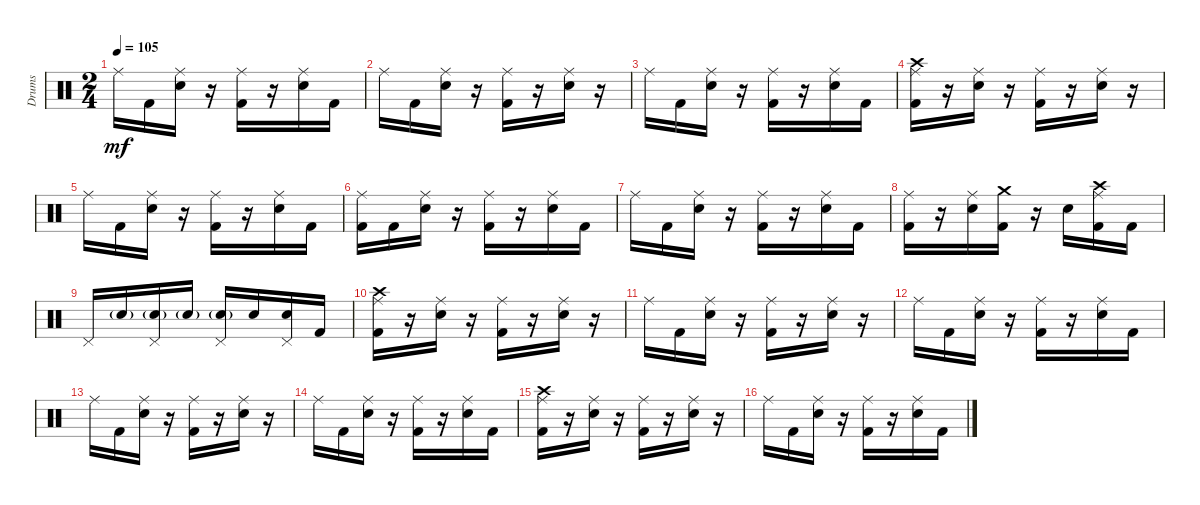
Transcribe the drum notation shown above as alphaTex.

\defaultSystemsLayout 4
\bracketExtendMode groupsimilarinstruments
\otherSystemsTrackNameOrientation horizontal
\track ("Godd" "Drums") {instrument percussion}
\staff {score}
\articulation defaults
\ts (2 4)
\tempo 105
\clef neutral
\ks c "Ride (middle)".16{dy mf} "Kick (hit) 2".16
("Ride (middle)" "Snare (hit) 2").16 r.16 ("Ride (middle)" "Kick (hit) 2").16 r.16 ("Ride (middle)" "Snare (hit) 2").16 "Kick (hit) 2".16 |
"Ride (middle)".16 "Kick (hit) 2".16 ("Ride (middle)" "Snare (hit) 2").16 r.16 ("Ride (middle)" "Kick (hit) 2").16 r.16 ("Ride (middle)" "Snare (hit) 2").16 r.16 |
"Ride (middle)".16 "Kick (hit) 2".16 ("Ride (middle)" "Snare (hit) 2").16 r.16 ("Ride (middle)" "Kick (hit) 2").16 r.16 ("Ride (middle)" "Snare (hit) 2").16 "Kick (hit) 2".16 |
("Ride (middle)" "Crash high (hit)" "Kick (hit) 2").16 r.16 ("Ride (middle)" "Snare (hit) 2").16 r.16 ("Ride (middle)" "Kick (hit) 2").16 r.16 ("Ride (middle)" "Snare (hit) 2").16 r.16 |
"Ride (middle)".16 "Kick (hit) 2".16 ("Ride (middle)" "Snare (hit) 2").16 r.16 ("Ride (middle)" "Kick (hit) 2").16 r.16 ("Ride (middle)" "Snare (hit) 2").16 "Kick (hit) 2".16 |
("Ride (middle)" "Kick (hit) 2").16 "Kick (hit) 2".16 ("Ride (middle)" "Snare (hit) 2").16 r.16 ("Ride (middle)" "Kick (hit) 2").16 r.16 ("Ride (middle)" "Snare (hit) 2").16 "Kick (hit) 2".16 |
"Ride (middle)".16 "Kick (hit) 2".16 ("Ride (middle)" "Snare (hit) 2").16 r.16 ("Ride (middle)" "Kick (hit) 2").16 r.16 ("Ride (middle)" "Snare (hit) 2").16 "Kick (hit) 2".16 |
("Ride (middle)" "Kick (hit) 2").16 r.16 ("Ride (middle)" "Snare (hit) 2").16 ("Kick (hit) 2" "Crash medium (hit)").16 r.16 "Snare (hit) 2".16 ("Ride (middle)" "Crash high (hit)" "Kick (hit) 2").16 "Kick (hit) 2".16 |
"Pedal Hi-Hat (hit)".16 "Snare (hit) 2"{g}.16 ("Pedal Hi-Hat (hit)" "Snare (hit) 2"{g}).16 "Snare (hit) 2"{g}.16 ("Pedal Hi-Hat (hit)" "Snare (hit) 2"{g}).16 "Snare (hit) 2".16 ("Pedal Hi-Hat (hit)" "Snare (hit) 2").16 "Kick (hit) 2".16 |
("Ride (middle)" "Crash high (hit)" "Kick (hit) 2").16 r.16 ("Ride (middle)" "Snare (hit) 2").16 r.16 ("Ride (middle)" "Kick (hit) 2").16 r.16 ("Ride (middle)" "Snare (hit) 2").16 r.16 |
"Ride (middle)".16 "Kick (hit) 2".16 ("Ride (middle)" "Snare (hit) 2").16 r.16 ("Ride (middle)" "Kick (hit) 2").16 r.16 ("Ride (middle)" "Snare (hit) 2").16 r.16 |
"Ride (middle)".16 "Kick (hit) 2".16 ("Ride (middle)" "Snare (hit) 2").16 r.16 ("Ride (middle)" "Kick (hit) 2").16 r.16 ("Ride (middle)" "Snare (hit) 2").16 "Kick (hit) 2".16 |
"Ride (middle)".16 "Kick (hit) 2".16 ("Ride (middle)" "Snare (hit) 2").16 r.16 ("Ride (middle)" "Kick (hit) 2").16 r.16 ("Ride (middle)" "Snare (hit) 2").16 r.16 |
"Ride (middle)".16 "Kick (hit) 2".16 ("Ride (middle)" "Snare (hit) 2").16 r.16 ("Ride (middle)" "Kick (hit) 2").16 r.16 ("Ride (middle)" "Snare (hit) 2").16 "Kick (hit) 2".16 |
("Ride (middle)" "Crash high (hit)" "Kick (hit) 2").16 r.16 ("Ride (middle)" "Snare (hit) 2").16 r.16 ("Ride (middle)" "Kick (hit) 2").16 r.16 ("Ride (middle)" "Snare (hit) 2").16 r.16 |
"Ride (middle)".16 "Kick (hit) 2".16 ("Ride (middle)" "Snare (hit) 2").16 r.16 ("Ride (middle)" "Kick (hit) 2").16 r.16 ("Ride (middle)" "Snare (hit) 2").16 "Kick (hit) 2".16
